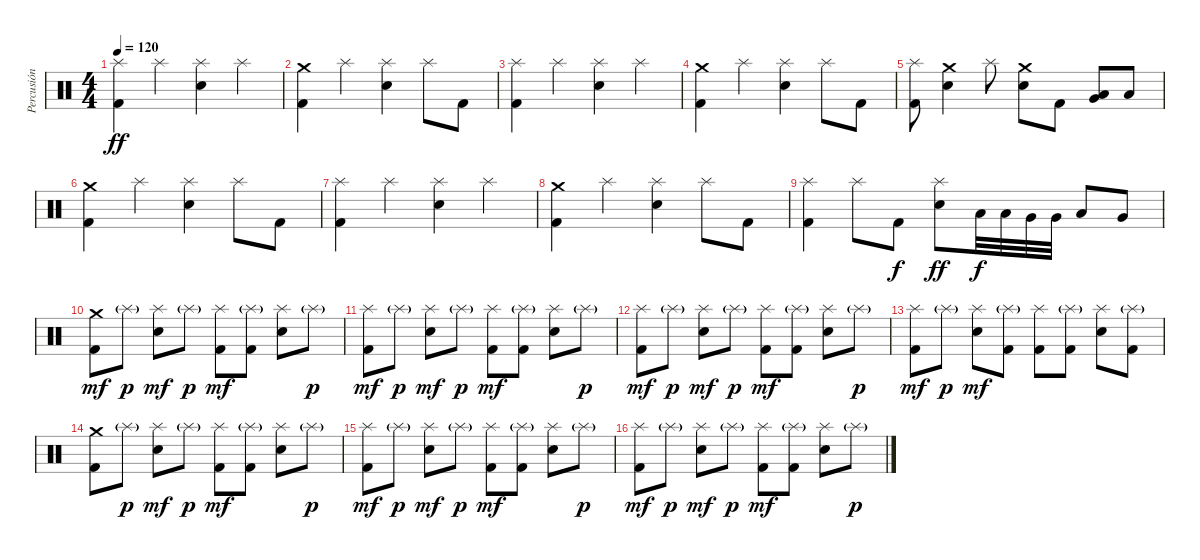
\track ("Percusión" "Percusión") {instrument percussion}
\staff {score}
\articulation defaults
\ts (4 4)
\tempo 120
\clef neutral
\ks c
("Splash (hit)" "Kick (hit) 2").4{dy ff} "Splash (hit)".4 ("Splash (hit)" "Electric Snare (hit)").4 "Splash (hit)".4 |
("Crash medium (hit)" "Kick (hit) 2").4 "Splash (hit)".4 ("Splash (hit)" "Electric Snare (hit)").4 "Splash (hit)".8 "Kick (hit) 2".8 |
("Splash (hit)" "Kick (hit) 2").4 "Splash (hit)".4 ("Splash (hit)" "Electric Snare (hit)").4 "Splash (hit)".4 |
("Crash medium (hit)" "Kick (hit) 2").4 "Splash (hit)".4 ("Splash (hit)" "Electric Snare (hit)").4 "Splash (hit)".8 "Kick (hit) 2".8 |
("Splash (hit)" "Kick (hit) 2").8 ("Crash medium (hit)" "Electric Snare (hit)").4 "Splash (hit)".8 ("Crash medium (hit)" "Electric Snare (hit)").8 "Kick (hit) 2".8 ("Very Low Tom (hit)" "Low Tom (hit)").8 "Low Floor Tom (hit)".8 |
("Crash medium (hit)" "Kick (hit) 2").4 "Splash (hit)".4 ("Splash (hit)" "Electric Snare (hit)").4 "Splash (hit)".8 "Kick (hit) 2".8 |
("Splash (hit)" "Kick (hit) 2").4 "Splash (hit)".4 ("Splash (hit)" "Electric Snare (hit)").4 "Splash (hit)".4 |
("Crash medium (hit)" "Kick (hit) 2").4 "Splash (hit)".4 ("Splash (hit)" "Electric Snare (hit)").4 "Splash (hit)".8 "Kick (hit) 2".8 |
("Splash (hit)" "Kick (hit) 2").4 "Splash (hit)".8 "Kick (hit) 2".8{dy f} ("Splash (hit)" "Electric Snare (hit)").8{dy ff} "Low Tom (hit)".32{dy f} "Low Tom (hit)".32 "Very Low Tom (hit)".32 "Very Low Tom (hit)".32 "Low Tom (hit)".8 "Very Low Tom (hit)".8 |
("Crash medium (hit)" "Kick (hit) 2").8{dy mf} "Splash (hit)"{g}.8{dy p} ("Splash (hit)" "Electric Snare (hit)").8{dy mf} "Splash (hit)"{g}.8{dy p} ("Splash (hit)" "Kick (hit) 2").8{dy mf} ("Splash (hit)"{g} "Kick (hit) 2").8 ("Splash (hit)" "Electric Snare (hit)").8 "Splash (hit)"{g}.8{dy p} |
("Splash (hit)" "Kick (hit) 2").8{dy mf} "Splash (hit)"{g}.8{dy p} ("Splash (hit)" "Electric Snare (hit)").8{dy mf} "Splash (hit)"{g}.8{dy p} ("Splash (hit)" "Kick (hit) 2").8{dy mf} ("Splash (hit)"{g} "Kick (hit) 2").8 ("Splash (hit)" "Electric Snare (hit)").8 "Splash (hit)"{g}.8{dy p} |
("Splash (hit)" "Kick (hit) 2").8{dy mf} "Splash (hit)"{g}.8{dy p} ("Splash (hit)" "Electric Snare (hit)").8{dy mf} "Splash (hit)"{g}.8{dy p} ("Splash (hit)" "Kick (hit) 2").8{dy mf} ("Splash (hit)"{g} "Kick (hit) 2").8 ("Splash (hit)" "Electric Snare (hit)").8 "Splash (hit)"{g}.8{dy p} |
("Splash (hit)" "Kick (hit) 2").8{dy mf} "Splash (hit)"{g}.8{dy p} ("Splash (hit)" "Electric Snare (hit)").8{dy mf} ("Splash (hit)"{g} "Kick (hit) 2").8 ("Splash (hit)" "Kick (hit) 2").8 ("Splash (hit)"{g} "Kick (hit) 2").8 ("Splash (hit)" "Electric Snare (hit)").8 ("Splash (hit)"{g} "Kick (hit) 2").8 |
("Crash medium (hit)" "Kick (hit) 2").8 "Splash (hit)"{g}.8{dy p} ("Splash (hit)" "Electric Snare (hit)").8{dy mf} "Splash (hit)"{g}.8{dy p} ("Splash (hit)" "Kick (hit) 2").8{dy mf} ("Splash (hit)"{g} "Kick (hit) 2").8 ("Splash (hit)" "Electric Snare (hit)").8 "Splash (hit)"{g}.8{dy p} |
("Splash (hit)" "Kick (hit) 2").8{dy mf} "Splash (hit)"{g}.8{dy p} ("Splash (hit)" "Electric Snare (hit)").8{dy mf} "Splash (hit)"{g}.8{dy p} ("Splash (hit)" "Kick (hit) 2").8{dy mf} ("Splash (hit)"{g} "Kick (hit) 2").8 ("Splash (hit)" "Electric Snare (hit)").8 "Splash (hit)"{g}.8{dy p} |
("Splash (hit)" "Kick (hit) 2").8{dy mf} "Splash (hit)"{g}.8{dy p} ("Splash (hit)" "Electric Snare (hit)").8{dy mf} "Splash (hit)"{g}.8{dy p} ("Splash (hit)" "Kick (hit) 2").8{dy mf} ("Splash (hit)"{g} "Kick (hit) 2").8 ("Splash (hit)" "Electric Snare (hit)").8 "Splash (hit)"{g}.8{dy p}
